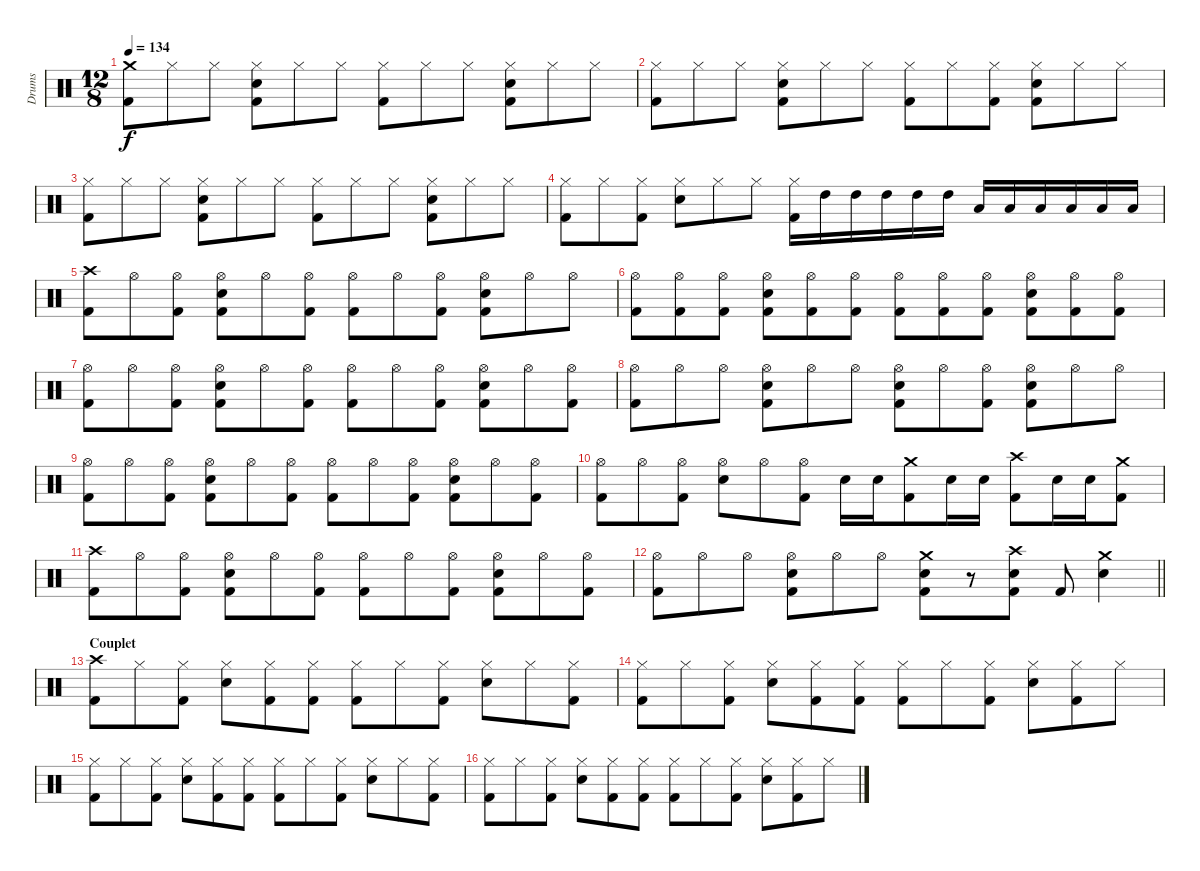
\track ("Drums" "Drums") {instrument percussion}
\staff {score}
\articulation defaults
\ts (12 8)
\tempo 134
\clef neutral
\ks c
("Crash medium (hit)" "Kick (hit) 2").8{dy f} "Hi-Hat (closed)".8 "Hi-Hat (closed)".8 ("Hi-Hat (closed)" "Snare (hit) 2" "Kick (hit) 2").8 "Hi-Hat (closed)".8 "Hi-Hat (closed)".8 ("Hi-Hat (closed)" "Kick (hit) 2").8 "Hi-Hat (closed)".8 "Hi-Hat (closed)".8 ("Hi-Hat (closed)" "Snare (hit) 2" "Kick (hit) 2").8 "Hi-Hat (closed)".8 "Hi-Hat (closed)".8 |
("Hi-Hat (closed)" "Kick (hit) 2").8 "Hi-Hat (closed)".8 "Hi-Hat (closed)".8 ("Hi-Hat (closed)" "Snare (hit) 2" "Kick (hit) 2").8 "Hi-Hat (closed)".8 "Hi-Hat (closed)".8 ("Hi-Hat (closed)" "Kick (hit) 2").8 "Hi-Hat (closed)".8 ("Hi-Hat (closed)" "Kick (hit) 2").8 ("Hi-Hat (closed)" "Snare (hit) 2" "Kick (hit) 2").8 "Hi-Hat (closed)".8 "Hi-Hat (closed)".8 |
("Hi-Hat (closed)" "Kick (hit) 2").8 "Hi-Hat (closed)".8 "Hi-Hat (closed)".8 ("Hi-Hat (closed)" "Snare (hit) 2" "Kick (hit) 2").8 "Hi-Hat (closed)".8 "Hi-Hat (closed)".8 ("Hi-Hat (closed)" "Kick (hit) 2").8 "Hi-Hat (closed)".8 "Hi-Hat (closed)".8 ("Hi-Hat (closed)" "Snare (hit) 2" "Kick (hit) 2").8 "Hi-Hat (closed)".8 "Hi-Hat (closed)".8 |
("Hi-Hat (closed)" "Kick (hit) 2").8 "Hi-Hat (closed)".8 ("Hi-Hat (closed)" "Kick (hit) 2").8 ("Hi-Hat (closed)" "Snare (hit) 2").8 "Hi-Hat (closed)".8 "Hi-Hat (closed)".8 ("Hi-Hat (closed)" "Kick (hit) 2").16 "High Tom (hit)".16 "High Tom (hit)".16 "High Tom (hit)".16 "High Tom (hit)".16 "High Tom (hit)".16 "Low Tom (hit)".16 "Low Tom (hit)".16 "Low Tom (hit)".16 "Low Tom (hit)".16 "Low Tom (hit)".16 "Low Tom (hit)".16 |
("Crash high (hit)" "Kick (hit) 2").8 "Hi-Hat (open)".8 ("Hi-Hat (open)" "Kick (hit) 2").8 ("Hi-Hat (open)" "Snare (hit) 2" "Kick (hit) 2").8 "Hi-Hat (open)".8 ("Hi-Hat (open)" "Kick (hit) 2").8 ("Hi-Hat (open)" "Kick (hit) 2").8 "Hi-Hat (open)".8 ("Hi-Hat (open)" "Kick (hit) 2").8 ("Hi-Hat (open)" "Snare (hit) 2" "Kick (hit) 2").8 "Hi-Hat (open)".8 "Hi-Hat (open)".8 |
("Hi-Hat (open)" "Kick (hit) 2").8 ("Hi-Hat (open)" "Kick (hit) 2").8 ("Hi-Hat (open)" "Kick (hit) 2").8 ("Hi-Hat (open)" "Snare (hit) 2" "Kick (hit) 2").8 ("Hi-Hat (open)" "Kick (hit) 2").8 ("Hi-Hat (open)" "Kick (hit) 2").8 ("Hi-Hat (open)" "Kick (hit) 2").8 ("Hi-Hat (open)" "Kick (hit) 2").8 ("Hi-Hat (open)" "Kick (hit) 2").8 ("Hi-Hat (open)" "Snare (hit) 2" "Kick (hit) 2").8 ("Hi-Hat (open)" "Kick (hit) 2").8 ("Hi-Hat (open)" "Kick (hit) 2").8 |
("Hi-Hat (open)" "Kick (hit) 2").8 "Hi-Hat (open)".8 ("Hi-Hat (open)" "Kick (hit) 2").8 ("Hi-Hat (open)" "Snare (hit) 2" "Kick (hit) 2").8 "Hi-Hat (open)".8 ("Hi-Hat (open)" "Kick (hit) 2").8 ("Hi-Hat (open)" "Kick (hit) 2").8 "Hi-Hat (open)".8 ("Hi-Hat (open)" "Kick (hit) 2").8 ("Hi-Hat (open)" "Snare (hit) 2" "Kick (hit) 2").8 "Hi-Hat (open)".8 ("Hi-Hat (open)" "Kick (hit) 2").8 |
("Hi-Hat (open)" "Kick (hit) 2").8 "Hi-Hat (open)".8 "Hi-Hat (open)".8 ("Hi-Hat (open)" "Snare (hit) 2" "Kick (hit) 2").8 "Hi-Hat (open)".8 "Hi-Hat (open)".8 ("Hi-Hat (open)" "Snare (hit) 2" "Kick (hit) 2").8 "Hi-Hat (open)".8 ("Hi-Hat (open)" "Kick (hit) 2").8 ("Hi-Hat (open)" "Snare (hit) 2" "Kick (hit) 2").8 "Hi-Hat (open)".8 "Hi-Hat (open)".8 |
("Hi-Hat (open)" "Kick (hit) 2").8 "Hi-Hat (open)".8 ("Hi-Hat (open)" "Kick (hit) 2").8 ("Hi-Hat (open)" "Snare (hit) 2" "Kick (hit) 2").8 "Hi-Hat (open)".8 ("Hi-Hat (open)" "Kick (hit) 2").8 ("Hi-Hat (open)" "Kick (hit) 2").8 "Hi-Hat (open)".8 ("Hi-Hat (open)" "Kick (hit) 2").8 ("Hi-Hat (open)" "Snare (hit) 2" "Kick (hit) 2").8 "Hi-Hat (open)".8 ("Hi-Hat (open)" "Kick (hit) 2").8 |
("Hi-Hat (open)" "Kick (hit) 2").8 "Hi-Hat (open)".8 ("Hi-Hat (open)" "Kick (hit) 2").8 ("Hi-Hat (open)" "Snare (hit) 2").8 "Hi-Hat (open)".8 ("Hi-Hat (open)" "Kick (hit) 2").8 "Snare (hit) 2".16 "Snare (hit) 2".16 ("Crash medium (hit)" "Kick (hit) 2").8 "Snare (hit) 2".16 "Snare (hit) 2".16 ("Crash high (hit)" "Kick (hit) 2").8 "Snare (hit) 2".16 "Snare (hit) 2".16 ("Crash medium (hit)" "Kick (hit) 2").8 |
("Crash high (hit)" "Kick (hit) 2").8 "Hi-Hat (open)".8 ("Hi-Hat (open)" "Kick (hit) 2").8 ("Hi-Hat (open)" "Snare (hit) 2" "Kick (hit) 2").8 "Hi-Hat (open)".8 ("Hi-Hat (open)" "Kick (hit) 2").8 ("Hi-Hat (open)" "Kick (hit) 2").8 "Hi-Hat (open)".8 ("Hi-Hat (open)" "Kick (hit) 2").8 ("Hi-Hat (open)" "Snare (hit) 2" "Kick (hit) 2").8 "Hi-Hat (open)".8 ("Hi-Hat (open)" "Kick (hit) 2").8 |
\barLineRight lightlight
("Hi-Hat (open)" "Kick (hit) 2").8 "Hi-Hat (open)".8 "Hi-Hat (open)".8 ("Hi-Hat (open)" "Snare (hit) 2" "Kick (hit) 2").8 "Hi-Hat (open)".8 "Hi-Hat (open)".8 ("Crash medium (hit)" "Snare (hit) 2" "Kick (hit) 2").8 r.8 ("Crash high (hit)" "Snare (hit) 2" "Kick (hit) 2").8 "Kick (hit) 2".8 ("Crash medium (hit)" "Snare (hit) 2").4 |
\section ("" "Couplet")
("Crash high (hit)" "Kick (hit) 2").8 "Hi-Hat (closed)".8 ("Hi-Hat (closed)" "Kick (hit) 2").8 ("Hi-Hat (closed)" "Snare (hit) 2").8 ("Hi-Hat (closed)" "Kick (hit) 2").8 ("Hi-Hat (closed)" "Kick (hit) 2").8 ("Hi-Hat (closed)" "Kick (hit) 2").8 "Hi-Hat (closed)".8 ("Hi-Hat (closed)" "Kick (hit) 2").8 ("Hi-Hat (closed)" "Snare (hit) 2").8 "Hi-Hat (closed)".8 ("Hi-Hat (closed)" "Kick (hit) 2").8 |
("Hi-Hat (closed)" "Kick (hit) 2").8 "Hi-Hat (closed)".8 ("Hi-Hat (closed)" "Kick (hit) 2").8 ("Hi-Hat (closed)" "Snare (hit) 2").8 ("Hi-Hat (closed)" "Kick (hit) 2").8 ("Hi-Hat (closed)" "Kick (hit) 2").8 ("Hi-Hat (closed)" "Kick (hit) 2").8 "Hi-Hat (closed)".8 ("Hi-Hat (closed)" "Kick (hit) 2").8 ("Hi-Hat (closed)" "Snare (hit) 2").8 ("Hi-Hat (closed)" "Kick (hit) 2").8 "Hi-Hat (closed)".8 |
("Hi-Hat (closed)" "Kick (hit) 2").8 "Hi-Hat (closed)".8 ("Hi-Hat (closed)" "Kick (hit) 2").8 ("Hi-Hat (closed)" "Snare (hit) 2").8 ("Hi-Hat (closed)" "Kick (hit) 2").8 ("Hi-Hat (closed)" "Kick (hit) 2").8 ("Hi-Hat (closed)" "Kick (hit) 2").8 "Hi-Hat (closed)".8 ("Hi-Hat (closed)" "Kick (hit) 2").8 ("Hi-Hat (closed)" "Snare (hit) 2").8 "Hi-Hat (closed)".8 ("Hi-Hat (closed)" "Kick (hit) 2").8 |
("Hi-Hat (closed)" "Kick (hit) 2").8 "Hi-Hat (closed)".8 ("Hi-Hat (closed)" "Kick (hit) 2").8 ("Hi-Hat (closed)" "Snare (hit) 2").8 ("Hi-Hat (closed)" "Kick (hit) 2").8 ("Hi-Hat (closed)" "Kick (hit) 2").8 ("Hi-Hat (closed)" "Kick (hit) 2").8 "Hi-Hat (closed)".8 ("Hi-Hat (closed)" "Kick (hit) 2").8 ("Hi-Hat (closed)" "Snare (hit) 2").8 ("Hi-Hat (closed)" "Kick (hit) 2").8 "Hi-Hat (closed)".8
